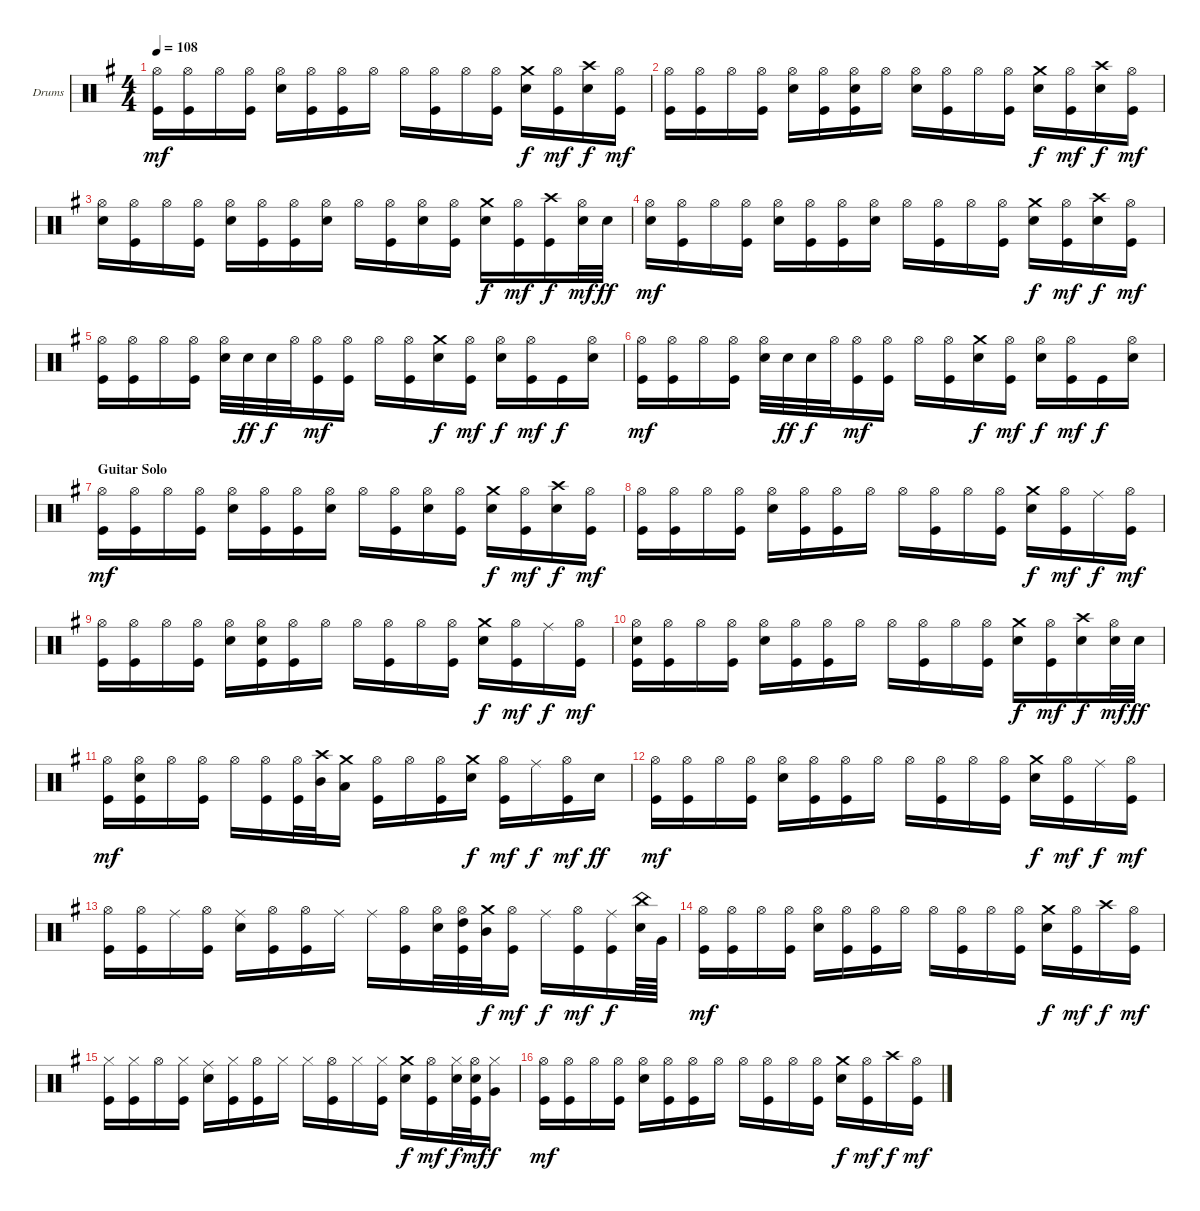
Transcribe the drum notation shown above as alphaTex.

\defaultSystemsLayout 4
\bracketExtendMode groupsimilarinstruments
\firstSystemTrackNameOrientation horizontal
\otherSystemsTrackNameOrientation horizontal
\track ("Drumkit" "Drums") {instrument percussion}
\staff {score}
\articulation defaults
\ts (4 4)
\tempo 108
\clef neutral
\scale
1.04288
\ks g
("Hi-Hat (open)" "Kick (hit)").16{dy mf} ("Hi-Hat (open)" "Kick (hit)").16 "Hi-Hat (open)".16 ("Hi-Hat (open)" "Kick (hit)").16 ("Hi-Hat (open)" "Snare (hit) 2").16 ("Hi-Hat (open)" "Kick (hit)").16 ("Hi-Hat (open)" "Kick (hit)").16 "Hi-Hat (open)".16 "Hi-Hat (open)".16 ("Hi-Hat (open)" "Kick (hit)").16 "Hi-Hat (open)".16 ("Hi-Hat (open)" "Kick (hit)").16 ("Crash medium (hit)" "Snare (hit) 2").16{dy f} ("Hi-Hat (open)" "Kick (hit)").16{dy mf} ("Crash high (hit)" "Snare (hit) 2").16{dy f} ("Hi-Hat (open)" "Kick (hit)").16{dy mf} |
\scale
0.957125 ("Hi-Hat (open)" "Kick (hit)").16 ("Hi-Hat (open)" "Kick (hit)").16 "Hi-Hat (open)".16 ("Hi-Hat (open)" "Kick (hit)").16 ("Hi-Hat (open)" "Snare (hit) 2").16 ("Hi-Hat (open)" "Kick (hit)").16 ("Hi-Hat (open)" "Snare (hit) 2" "Kick (hit)").16 "Hi-Hat (open)".16 ("Hi-Hat (open)" "Snare (hit) 2").16 ("Hi-Hat (open)" "Kick (hit)").16 "Hi-Hat (open)".16 ("Hi-Hat (open)" "Kick (hit)").16 ("Crash medium (hit)" "Snare (hit) 2").16{dy f} ("Hi-Hat (open)" "Kick (hit)").16{dy mf} ("Crash high (hit)" "Snare (hit) 2").16{dy f} ("Hi-Hat (open)" "Kick (hit)").16{dy mf} |
\scale
1.04288 ("Hi-Hat (open)" "Snare (hit) 2").16 ("Hi-Hat (open)" "Kick (hit)").16 "Hi-Hat (open)".16 ("Hi-Hat (open)" "Kick (hit)").16 ("Hi-Hat (open)" "Snare (hit) 2").16 ("Hi-Hat (open)" "Kick (hit)").16 ("Hi-Hat (open)" "Kick (hit)").16 ("Hi-Hat (open)" "Snare (hit) 2").16 "Hi-Hat (open)".16 ("Hi-Hat (open)" "Kick (hit)").16 ("Hi-Hat (open)" "Snare (hit) 2").16 ("Hi-Hat (open)" "Kick (hit)").16 ("Crash medium (hit)" "Snare (hit) 2").16{dy f} ("Hi-Hat (open)" "Kick (hit)").16{dy mf} ("Crash high (hit)" "Kick (hit)").16{dy f} ("Hi-Hat (open)" "Snare (hit) 2").32{dy mf} "Snare (hit) 2".32{dy ff} |
\scale
0.957125 ("Hi-Hat (open)" "Snare (hit) 2").16{dy mf} ("Hi-Hat (open)" "Kick (hit)").16 "Hi-Hat (open)".16 ("Hi-Hat (open)" "Kick (hit)").16 ("Hi-Hat (open)" "Snare (hit) 2").16 ("Hi-Hat (open)" "Kick (hit)").16 ("Hi-Hat (open)" "Kick (hit)").16 ("Hi-Hat (open)" "Snare (hit) 2").16 "Hi-Hat (open)".16 ("Hi-Hat (open)" "Kick (hit)").16 "Hi-Hat (open)".16 ("Hi-Hat (open)" "Kick (hit)").16 ("Crash medium (hit)" "Snare (hit) 2").16{dy f} ("Hi-Hat (open)" "Kick (hit)").16{dy mf} ("Crash high (hit)" "Snare (hit) 2").16{dy f} ("Hi-Hat (open)" "Kick (hit)").16{dy mf} |
\scale
1.04288 ("Hi-Hat (open)" "Kick (hit)").16 ("Hi-Hat (open)" "Kick (hit)").16 "Hi-Hat (open)".16 ("Hi-Hat (open)" "Kick (hit)").16 ("Hi-Hat (open)" "Snare (hit) 2").32 "Snare (hit) 2".32{dy ff} "Snare (hit) 2".32{dy f} "Hi-Hat (open)".32 ("Hi-Hat (open)" "Kick (hit)").16{dy mf} ("Hi-Hat (open)" "Kick (hit)").16 "Hi-Hat (open)".16 ("Hi-Hat (open)" "Kick (hit)").16 ("Crash medium (hit)" "Snare (hit) 2").16{dy f} ("Hi-Hat (open)" "Kick (hit)").16{dy mf} ("Hi-Hat (open)" "Snare (hit) 2").16{dy f} ("Hi-Hat (open)" "Kick (hit)").16{dy mf} "Kick (hit)".16{dy f} ("Hi-Hat (open)" "Snare (hit) 2").16 |
\scale
0.957125 ("Hi-Hat (open)" "Kick (hit)").16{dy mf} ("Hi-Hat (open)" "Kick (hit)").16 "Hi-Hat (open)".16 ("Hi-Hat (open)" "Kick (hit)").16 ("Hi-Hat (open)" "Snare (hit) 2").32 "Snare (hit) 2".32{dy ff} "Snare (hit) 2".32{dy f} "Hi-Hat (open)".32 ("Hi-Hat (open)" "Kick (hit)").16{dy mf} ("Hi-Hat (open)" "Kick (hit)").16 "Hi-Hat (open)".16 ("Hi-Hat (open)" "Kick (hit)").16 ("Crash medium (hit)" "Snare (hit) 2").16{dy f} ("Hi-Hat (open)" "Kick (hit)").16{dy mf} ("Hi-Hat (open)" "Snare (hit) 2").16{dy f} ("Hi-Hat (open)" "Kick (hit)").16{dy mf} "Kick (hit)".16{dy f} ("Hi-Hat (open)" "Snare (hit) 2").16 |
\section ("" "Guitar Solo")
\scale
1.04288 ("Hi-Hat (open)" "Kick (hit)").16{dy mf} ("Hi-Hat (open)" "Kick (hit)").16 "Hi-Hat (open)".16 ("Hi-Hat (open)" "Kick (hit)").16 ("Hi-Hat (open)" "Snare (hit) 2").16 ("Hi-Hat (open)" "Kick (hit)").16 ("Hi-Hat (open)" "Kick (hit)").16 ("Hi-Hat (open)" "Snare (hit) 2").16 "Hi-Hat (open)".16 ("Hi-Hat (open)" "Kick (hit)").16 ("Hi-Hat (open)" "Snare (hit) 2").16 ("Hi-Hat (open)" "Kick (hit)").16 ("Crash medium (hit)" "Snare (hit) 2").16{dy f} ("Hi-Hat (open)" "Kick (hit)").16{dy mf} ("Crash high (hit)" "Snare (hit) 2").16{dy f} ("Hi-Hat (open)" "Kick (hit)").16{dy mf} |
\scale
0.957125 ("Hi-Hat (open)" "Kick (hit)").16 ("Hi-Hat (open)" "Kick (hit)").16 "Hi-Hat (open)".16 ("Hi-Hat (open)" "Kick (hit)").16 ("Hi-Hat (open)" "Snare (hit) 2").16 ("Hi-Hat (open)" "Kick (hit)").16 ("Hi-Hat (open)" "Kick (hit)").16 "Hi-Hat (open)".16 "Hi-Hat (open)".16 ("Hi-Hat (open)" "Kick (hit)").16 "Hi-Hat (open)".16 ("Hi-Hat (open)" "Kick (hit)").16 ("Crash medium (hit)" "Snare (hit) 2").16{dy f} ("Hi-Hat (open)" "Kick (hit)").16{dy mf} "Ride (middle)".16{dy f} ("Hi-Hat (open)" "Kick (hit)").16{dy mf} |
\scale
1.04288 ("Hi-Hat (open)" "Kick (hit)").16 ("Hi-Hat (open)" "Kick (hit)").16 "Hi-Hat (open)".16 ("Hi-Hat (open)" "Kick (hit)").16 ("Hi-Hat (open)" "Snare (hit) 2").16 ("Hi-Hat (open)" "Snare (hit) 2" "Kick (hit)").16 ("Hi-Hat (open)" "Kick (hit)").16 "Hi-Hat (open)".16 "Hi-Hat (open)".16 ("Hi-Hat (open)" "Kick (hit)").16 "Hi-Hat (open)".16 ("Hi-Hat (open)" "Kick (hit)").16 ("Crash medium (hit)" "Snare (hit) 2").16{dy f} ("Hi-Hat (open)" "Kick (hit)").16{dy mf} "Ride (middle)".16{dy f} ("Hi-Hat (open)" "Kick (hit)").16{dy mf} |
\scale
0.957125 ("Hi-Hat (open)" "Snare (hit) 2" "Kick (hit)").16 ("Hi-Hat (open)" "Kick (hit)").16 "Hi-Hat (open)".16 ("Hi-Hat (open)" "Kick (hit)").16 ("Hi-Hat (open)" "Snare (hit) 2").16 ("Hi-Hat (open)" "Kick (hit)").16 ("Hi-Hat (open)" "Kick (hit)").16 "Hi-Hat (open)".16 "Hi-Hat (open)".16 ("Hi-Hat (open)" "Kick (hit)").16 "Hi-Hat (open)".16 ("Hi-Hat (open)" "Kick (hit)").16 ("Crash medium (hit)" "Snare (hit) 2").16{dy f} ("Hi-Hat (open)" "Kick (hit)").16{dy mf} ("Crash high (hit)" "Snare (hit) 2").16{dy f} ("Hi-Hat (open)" "Snare (hit) 2").32{dy mf} "Snare (hit) 2".32{dy ff} |
\scale
1.04288 ("Hi-Hat (open)" "Kick (hit)").16{dy mf} ("Hi-Hat (open)" "Snare (hit) 2" "Kick (hit)").16 "Hi-Hat (open)".16 ("Hi-Hat (open)" "Kick (hit)").16 "Hi-Hat (open)".16 ("Hi-Hat (open)" "Kick (hit)").16 ("Hi-Hat (open)" "Kick (hit)").32 ("Crash high (hit)" "Mid Tom (hit)").32 ("Crash medium (hit)" "Low Tom (hit)").16 ("Hi-Hat (open)" "Kick (hit)").16 "Hi-Hat (open)".16 ("Hi-Hat (open)" "Kick (hit)").16 ("Crash medium (hit)" "Snare (hit) 2").16{dy f} ("Hi-Hat (open)" "Kick (hit)").16{dy mf} "Ride (middle)".16{dy f} ("Hi-Hat (open)" "Kick (hit)").16{dy mf} "Snare (hit) 2".16{dy ff} |
\scale
0.957125 ("Hi-Hat (open)" "Kick (hit)").16{dy mf} ("Hi-Hat (open)" "Kick (hit)").16 "Hi-Hat (open)".16 ("Hi-Hat (open)" "Kick (hit)").16 ("Hi-Hat (open)" "Snare (hit) 2").16 ("Hi-Hat (open)" "Kick (hit)").16 ("Hi-Hat (open)" "Kick (hit)").16 "Hi-Hat (open)".16 "Hi-Hat (open)".16 ("Hi-Hat (open)" "Kick (hit)").16 "Hi-Hat (open)".16 ("Hi-Hat (open)" "Kick (hit)").16 ("Crash medium (hit)" "Snare (hit) 2").16{dy f} ("Hi-Hat (open)" "Kick (hit)").16{dy mf} "Ride (middle)".16{dy f} ("Hi-Hat (open)" "Kick (hit)").16{dy mf} |
\scale
1.04288 ("Hi-Hat (open)" "Kick (hit)").16 ("Hi-Hat (open)" "Kick (hit)").16 "Ride (middle)".16 ("Hi-Hat (open)" "Kick (hit)").16 ("Ride (middle)" "Snare (hit) 2").16 ("Hi-Hat (open)" "Kick (hit)").16 ("Hi-Hat (open)" "Kick (hit)").16 "Ride (middle)".16 "Ride (middle)".16 ("Hi-Hat (open)" "Kick (hit)").16 ("Hi-Hat (open)" "Snare (hit) 2").32 ("Hi-Hat (open)" "High Tom (hit)" "Kick (hit)").32 ("Crash medium (hit)" "Mid Tom (hit)").32{dy f} ("Hi-Hat (open)" "Kick (hit)").16{dy mf} "Ride (middle)".16{dy f} ("Hi-Hat (open)" "Kick (hit)").16{dy mf} ("Ride (middle)" "Kick (hit)").16{dy f} ("China (hit)" "Snare (hit) 2").64 "Very Low Tom (hit)".64 |
\scale
0.957125 ("Hi-Hat (open)" "Kick (hit)").16{dy mf} ("Hi-Hat (open)" "Kick (hit)").16 "Hi-Hat (open)".16 ("Hi-Hat (open)" "Kick (hit)").16 ("Hi-Hat (open)" "Snare (hit) 2").16 ("Hi-Hat (open)" "Kick (hit)").16 ("Hi-Hat (open)" "Kick (hit)").16 "Hi-Hat (open)".16 "Hi-Hat (open)".16 ("Hi-Hat (open)" "Kick (hit)").16 "Hi-Hat (open)".16 ("Hi-Hat (open)" "Kick (hit)").16 ("Crash medium (hit)" "Snare (hit) 2").16{dy f} ("Hi-Hat (open)" "Kick (hit)").16{dy mf} "Crash high (hit)".16{dy f} ("Hi-Hat (open)" "Kick (hit)").16{dy mf} |
\scale
1.04288 ("Hi-Hat (closed)" "Kick (hit)").16 ("Hi-Hat (closed)" "Kick (hit)").16 "Hi-Hat (open)".16 ("Hi-Hat (closed)" "Kick (hit)").16 ("Ride (middle)" "Snare (hit) 2").16 ("Hi-Hat (closed)" "Kick (hit)").16 ("Hi-Hat (open)" "Kick (hit)").16 "Hi-Hat (closed)".16 "Hi-Hat (closed)".16 ("Hi-Hat (open)" "Kick (hit)").16 "Hi-Hat (closed)".16 ("Hi-Hat (closed)" "Kick (hit)").16 ("Crash medium (hit)" "Snare (hit) 2").16{dy f} ("Hi-Hat (open)" "Kick (hit)").16{dy mf} ("Hi-Hat (closed)" "Snare (hit) 2").32{dy f} ("Hi-Hat (open)" "Snare (hit) 2" "Kick (hit)").32{dy mf} ("Hi-Hat (closed)" "Very Low Tom (hit)").16{dy f} |
\scale
0.957125 ("Hi-Hat (open)" "Kick (hit)").16{dy mf} ("Hi-Hat (open)" "Kick (hit)").16 "Hi-Hat (open)".16 ("Hi-Hat (open)" "Kick (hit)").16 ("Hi-Hat (open)" "Snare (hit) 2").16 ("Hi-Hat (open)" "Kick (hit)").16 ("Hi-Hat (open)" "Kick (hit)").16 "Hi-Hat (open)".16 "Hi-Hat (open)".16 ("Hi-Hat (open)" "Kick (hit)").16 "Hi-Hat (open)".16 ("Hi-Hat (open)" "Kick (hit)").16 ("Crash medium (hit)" "Snare (hit) 2").16{dy f} ("Hi-Hat (open)" "Kick (hit)").16{dy mf} "Crash high (hit)".16{dy f} ("Hi-Hat (open)" "Kick (hit)").16{dy mf}
